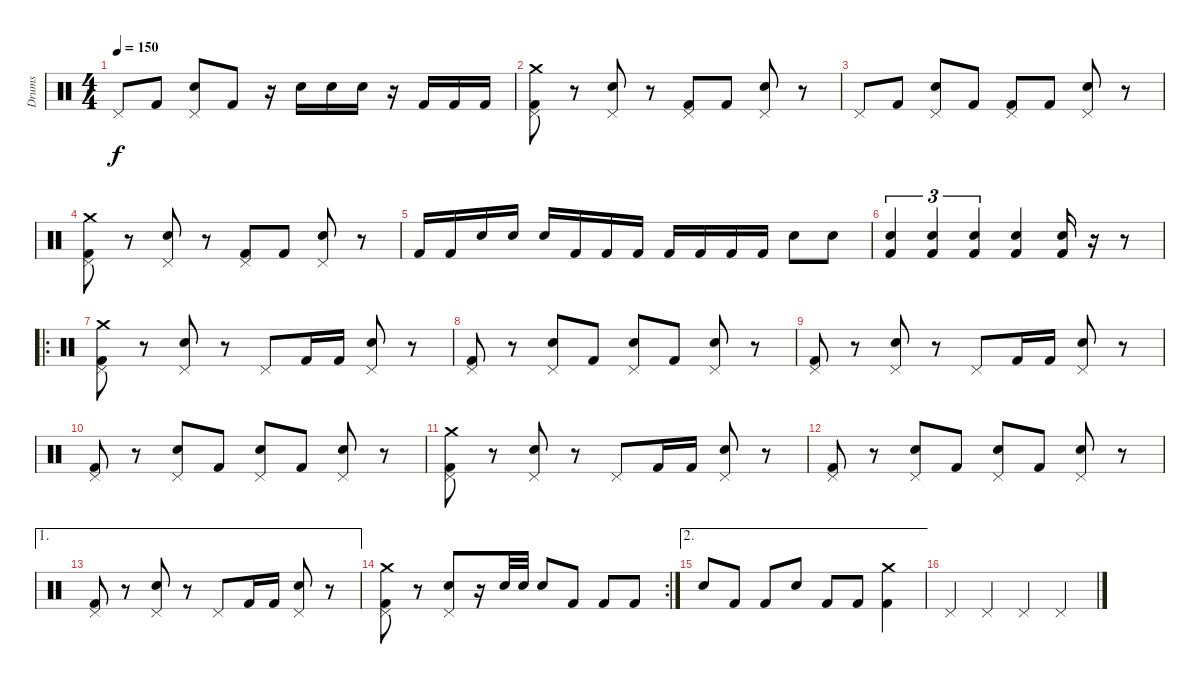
\track ("Drums" "Drums") {instrument percussion}
\staff {score}
\articulation defaults
\ts (4 4)
\tempo 150
\clef neutral
\ks c "Pedal Hi-Hat (hit)".8{dy f} "Kick (hit) 2".8
("Pedal Hi-Hat (hit)" "Electric Snare (hit)").8 "Kick (hit) 2".8 r.16 "Electric Snare (hit)".16 "Electric Snare (hit)".16 "Electric Snare (hit)".16 r.16 "Kick (hit) 2".16 "Kick (hit) 2".16 "Kick (hit) 2".16 |
("Kick (hit) 2" "Pedal Hi-Hat (hit)" "Crash medium (hit)").8 r.8 ("Pedal Hi-Hat (hit)" "Electric Snare (hit)").8 r.8 ("Kick (hit) 2" "Pedal Hi-Hat (hit)").8 "Kick (hit) 2".8 ("Pedal Hi-Hat (hit)" "Electric Snare (hit)").8 r.8 |
"Pedal Hi-Hat (hit)".8 "Kick (hit) 2".8 ("Pedal Hi-Hat (hit)" "Electric Snare (hit)").8 "Kick (hit) 2".8 ("Kick (hit) 2" "Pedal Hi-Hat (hit)").8 "Kick (hit) 2".8 ("Pedal Hi-Hat (hit)" "Electric Snare (hit)").8 r.8 |
("Kick (hit) 2" "Pedal Hi-Hat (hit)" "Crash medium (hit)").8 r.8 ("Pedal Hi-Hat (hit)" "Electric Snare (hit)").8 r.8 ("Kick (hit) 2" "Pedal Hi-Hat (hit)").8 "Kick (hit) 2".8 ("Pedal Hi-Hat (hit)" "Electric Snare (hit)").8 r.8 |
"Kick (hit) 2".16 "Kick (hit) 2".16 "Electric Snare (hit)".16 "Electric Snare (hit)".16 "Electric Snare (hit)".16 "Kick (hit) 2".16 "Kick (hit) 2".16 "Kick (hit) 2".16 "Kick (hit) 2".16 "Kick (hit) 2".16 "Kick (hit) 2".16 "Kick (hit) 2".16 "Electric Snare (hit)".8 "Electric Snare (hit)".8 |
("Kick (hit) 2" "Electric Snare (hit)").4{tu (3 2)} ("Kick (hit) 2" "Electric Snare (hit)").4{tu (3 2)} ("Kick (hit) 2" "Electric Snare (hit)").4{tu (3 2)} ("Kick (hit) 2" "Electric Snare (hit)").4 ("Kick (hit) 2" "Electric Snare (hit)").16 r.16 r.8 |
\ro
("Kick (hit) 2" "Pedal Hi-Hat (hit)" "Crash medium (hit)").8 r.8 ("Pedal Hi-Hat (hit)" "Electric Snare (hit)").8 r.8 "Pedal Hi-Hat (hit)".8 "Kick (hit) 2".16 "Kick (hit) 2".16 ("Pedal Hi-Hat (hit)" "Electric Snare (hit)").8 r.8 |
("Kick (hit) 2" "Pedal Hi-Hat (hit)").8 r.8 ("Pedal Hi-Hat (hit)" "Electric Snare (hit)").8 "Kick (hit) 2".8 ("Pedal Hi-Hat (hit)" "Electric Snare (hit)").8 "Kick (hit) 2".8 ("Pedal Hi-Hat (hit)" "Electric Snare (hit)").8 r.8 |
("Kick (hit) 2" "Pedal Hi-Hat (hit)").8 r.8 ("Pedal Hi-Hat (hit)" "Electric Snare (hit)").8 r.8 "Pedal Hi-Hat (hit)".8 "Kick (hit) 2".16 "Kick (hit) 2".16 ("Pedal Hi-Hat (hit)" "Electric Snare (hit)").8 r.8 |
("Kick (hit) 2" "Pedal Hi-Hat (hit)").8 r.8 ("Pedal Hi-Hat (hit)" "Electric Snare (hit)").8 "Kick (hit) 2".8 ("Pedal Hi-Hat (hit)" "Electric Snare (hit)").8 "Kick (hit) 2".8 ("Pedal Hi-Hat (hit)" "Electric Snare (hit)").8 r.8 |
("Kick (hit) 2" "Pedal Hi-Hat (hit)" "Crash medium (hit)").8 r.8 ("Pedal Hi-Hat (hit)" "Electric Snare (hit)").8 r.8 "Pedal Hi-Hat (hit)".8 "Kick (hit) 2".16 "Kick (hit) 2".16 ("Pedal Hi-Hat (hit)" "Electric Snare (hit)").8 r.8 |
("Kick (hit) 2" "Pedal Hi-Hat (hit)").8 r.8 ("Pedal Hi-Hat (hit)" "Electric Snare (hit)").8 "Kick (hit) 2".8 ("Pedal Hi-Hat (hit)" "Electric Snare (hit)").8 "Kick (hit) 2".8 ("Pedal Hi-Hat (hit)" "Electric Snare (hit)").8 r.8 |
\ae 1
("Kick (hit) 2" "Pedal Hi-Hat (hit)").8 r.8 ("Pedal Hi-Hat (hit)" "Electric Snare (hit)").8 r.8 "Pedal Hi-Hat (hit)".8 "Kick (hit) 2".16 "Kick (hit) 2".16 ("Pedal Hi-Hat (hit)" "Electric Snare (hit)").8 r.8 |
\rc 2
("Kick (hit) 2" "Pedal Hi-Hat (hit)" "Crash medium (hit)").8 r.8 ("Pedal Hi-Hat (hit)" "Electric Snare (hit)").8 r.16 "Electric Snare (hit)".32 "Electric Snare (hit)".32 "Electric Snare (hit)".8 "Kick (hit) 2".8 "Kick (hit) 2".8 "Kick (hit) 2".8 |
\ae 2 "Electric Snare (hit)".8 "Kick (hit) 2".8 "Kick (hit) 2".8 "Electric Snare (hit)".8 "Kick (hit) 2".8 "Kick (hit) 2".8
("Kick (hit) 2" "Crash medium (hit)").4 |
"Pedal Hi-Hat (hit)".4 "Pedal Hi-Hat (hit)".4 "Pedal Hi-Hat (hit)".4 "Pedal Hi-Hat (hit)".4
